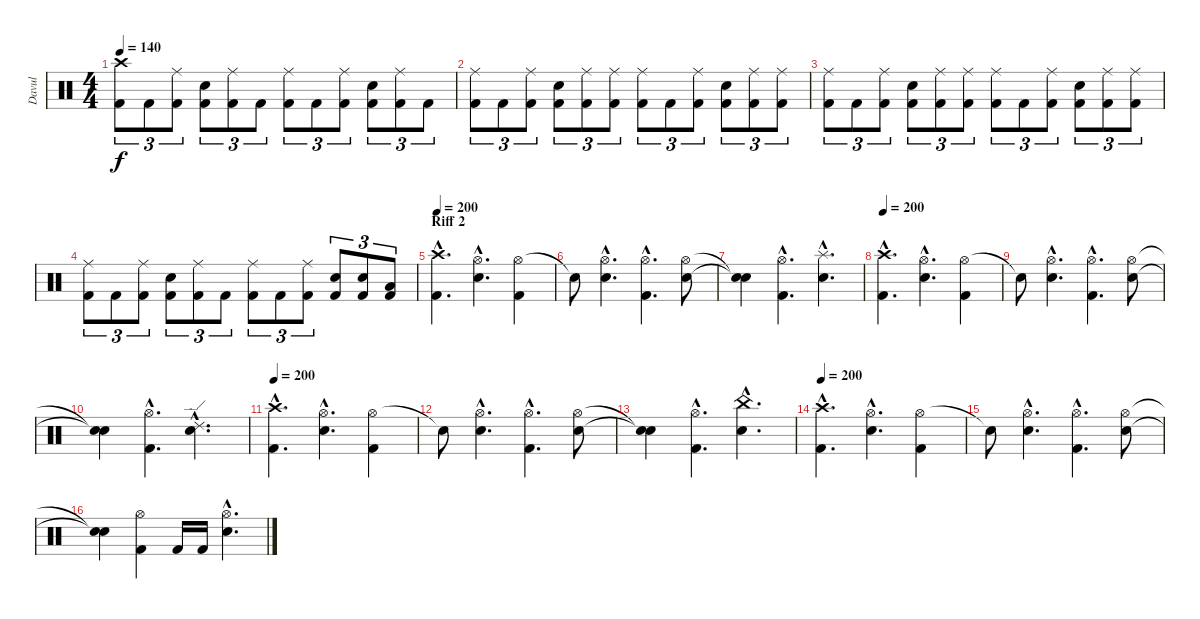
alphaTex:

\track ("Davul" "Davul") {instrument percussion}
\staff {score}
\articulation defaults
\ts (4 4)
\tempo 140
\clef neutral
\ks c
("Crash high (hit)" "Kick (hit) 2").8{tu (3 2) dy f} "Kick (hit) 2".8{tu (3 2)} ("Ride (middle)" "Kick (hit) 2").8{tu (3 2)} ("Electric Snare (hit)" "Kick (hit) 2").8{tu (3 2)} ("Ride (middle)" "Kick (hit) 2").8{tu (3 2)} "Kick (hit) 2".8{tu (3 2)} ("Ride (middle)" "Kick (hit) 2").8{tu (3 2)} "Kick (hit) 2".8{tu (3 2)} ("Ride (middle)" "Kick (hit) 2").8{tu (3 2)} ("Electric Snare (hit)" "Kick (hit) 2").8{tu (3 2)} ("Ride (middle)" "Kick (hit) 2").8{tu (3 2)} "Kick (hit) 2".8{tu (3 2)} |
("Ride (middle)" "Kick (hit) 2").8{tu (3 2)} "Kick (hit) 2".8{tu (3 2)} ("Ride (middle)" "Kick (hit) 2").8{tu (3 2)} ("Electric Snare (hit)" "Kick (hit) 2").8{tu (3 2)} ("Ride (middle)" "Kick (hit) 2").8{tu (3 2)} ("Ride (middle)" "Kick (hit) 2").8{tu (3 2)} ("Ride (middle)" "Kick (hit) 2").8{tu (3 2)} "Kick (hit) 2".8{tu (3 2)} ("Ride (middle)" "Kick (hit) 2").8{tu (3 2)} ("Electric Snare (hit)" "Kick (hit) 2").8{tu (3 2)} ("Ride (middle)" "Kick (hit) 2").8{tu (3 2)} ("Ride (middle)" "Kick (hit) 2").8{tu (3 2)} |
("Ride (middle)" "Kick (hit) 2").8{tu (3 2)} "Kick (hit) 2".8{tu (3 2)} ("Ride (middle)" "Kick (hit) 2").8{tu (3 2)} ("Electric Snare (hit)" "Kick (hit) 2").8{tu (3 2)} ("Ride (middle)" "Kick (hit) 2").8{tu (3 2)} ("Ride (middle)" "Kick (hit) 2").8{tu (3 2)} ("Ride (middle)" "Kick (hit) 2").8{tu (3 2)} "Kick (hit) 2".8{tu (3 2)} ("Ride (middle)" "Kick (hit) 2").8{tu (3 2)} ("Electric Snare (hit)" "Kick (hit) 2").8{tu (3 2)} ("Ride (middle)" "Kick (hit) 2").8{tu (3 2)} ("Ride (middle)" "Kick (hit) 2").8{tu (3 2)} |
("Ride (middle)" "Kick (hit) 2").8{tu (3 2)} "Kick (hit) 2".8{tu (3 2)} ("Ride (middle)" "Kick (hit) 2").8{tu (3 2)} ("Electric Snare (hit)" "Kick (hit) 2").8{tu (3 2)} ("Ride (middle)" "Kick (hit) 2").8{tu (3 2)} "Kick (hit) 2".8{tu (3 2)} ("Ride (middle)" "Kick (hit) 2").8{tu (3 2)} "Kick (hit) 2".8{tu (3 2)} ("Ride (middle)" "Kick (hit) 2").8{tu (3 2)} ("Electric Snare (hit)" "Kick (hit) 2").8{tu (3 2)} ("Electric Snare (hit)" "Kick (hit) 2").8{tu (3 2)} ("Low Floor Tom (hit)" "Kick (hit) 2").8{tu (3 2)} |
\section ("" "Riff 2")
\tempo 200
("Crash high (hit)"{hac} "Kick (hit) 2"{hac}).4{d} ("Hi-Hat (open)"{hac} "Electric Snare (hit)"{hac}).4{d} ("Hi-Hat (open)" "Kick (hit) 2").4 |
"Snare (hit)"{t}.8 ("Hi-Hat (open)"{hac} "Electric Snare (hit)"{hac}).4{d} ("Hi-Hat (open)"{hac} "Kick (hit) 2"{hac}).4{d} ("Hi-Hat (open)" "Electric Snare (hit)").8 |
("Snare (hit)"{t} "Snare (hit)"{t}).4 ("Hi-Hat (open)"{hac} "Kick (hit) 2"{hac}).4{d} ("Splash (hit)"{hac} "Electric Snare (hit)"{hac}).4{d} |
\tempo 200
("Crash high (hit)"{hac} "Kick (hit) 2"{hac}).4{d} ("Hi-Hat (open)"{hac} "Electric Snare (hit)"{hac}).4{d} ("Hi-Hat (open)" "Kick (hit) 2").4 |
"Snare (hit)"{t}.8 ("Hi-Hat (open)"{hac} "Electric Snare (hit)"{hac}).4{d} ("Hi-Hat (open)"{hac} "Kick (hit) 2"{hac}).4{d} ("Hi-Hat (open)" "Electric Snare (hit)").8 |
("Snare (hit)"{t} "Snare (hit)"{t}).4 ("Hi-Hat (open)"{hac} "Kick (hit) 2"{hac}).4{d} ("Ride (edge) 2"{hac} "Electric Snare (hit)"{hac}).4{d} |
\tempo 200
("Crash high (hit)"{hac} "Kick (hit) 2"{hac}).4{d} ("Hi-Hat (open)"{hac} "Electric Snare (hit)"{hac}).4{d} ("Hi-Hat (open)" "Kick (hit) 2").4 |
"Snare (hit)"{t}.8 ("Hi-Hat (open)"{hac} "Electric Snare (hit)"{hac}).4{d} ("Hi-Hat (open)"{hac} "Kick (hit) 2"{hac}).4{d} ("Hi-Hat (open)" "Electric Snare (hit)").8 |
("Snare (hit)"{t} "Snare (hit)"{t}).4 ("Hi-Hat (open)"{hac} "Kick (hit) 2"{hac}).4{d} ("China (hit)"{hac} "Electric Snare (hit)"{hac}).4{d} |
\tempo 200
("Crash high (hit)"{hac} "Kick (hit) 2"{hac}).4{d} ("Hi-Hat (open)"{hac} "Electric Snare (hit)"{hac}).4{d} ("Hi-Hat (open)" "Kick (hit) 2").4 |
"Snare (hit)"{t}.8 ("Hi-Hat (open)"{hac} "Electric Snare (hit)"{hac}).4{d} ("Hi-Hat (open)"{hac} "Kick (hit) 2"{hac}).4{d} ("Hi-Hat (open)" "Electric Snare (hit)").8 |
("Snare (hit)"{t} "Snare (hit)"{t}).4 ("Hi-Hat (open)" "Kick (hit) 2").4 "Kick (hit) 2".16 "Kick (hit) 2".16 ("Hi-Hat (open)"{hac} "Electric Snare (hit)"{hac}).4{d}
